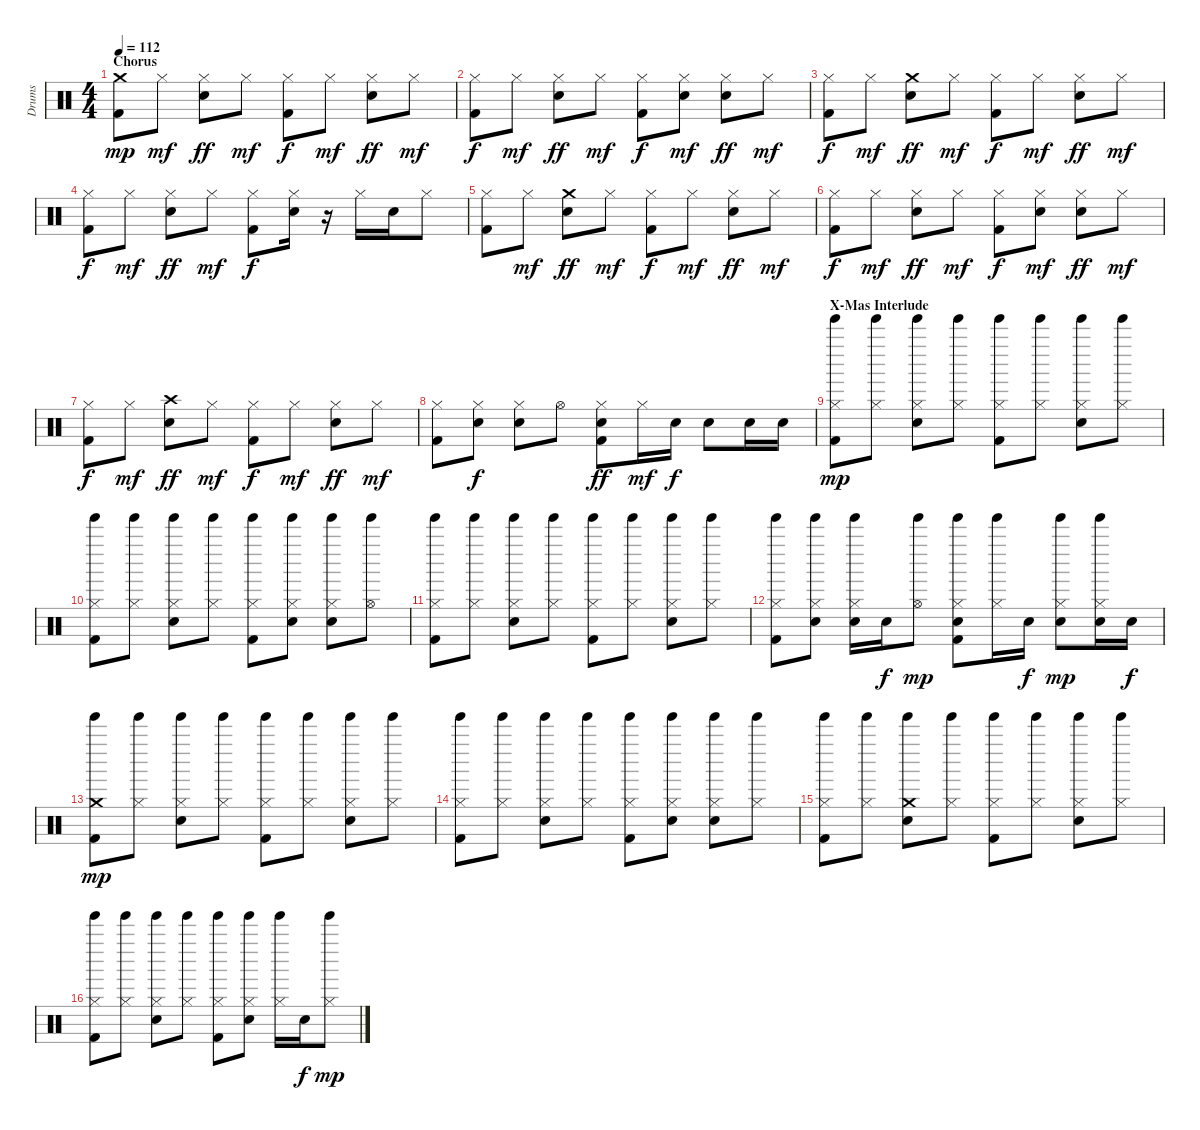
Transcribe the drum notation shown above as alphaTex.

\track ("Drums" "Drums") {instrument percussion}
\staff {score}
\articulation defaults
\ts (4 4)
\section ("" "Chorus")
\tempo 112
\clef neutral
\ks c
("Crash medium (hit)" "Kick (hit) 2").8{dy mp} "Hi-Hat (closed)".8{dy mf} ("Hi-Hat (closed)" "Snare (hit) 2").8{dy ff} "Hi-Hat (closed)".8{dy mf} ("Hi-Hat (closed)" "Kick (hit) 2").8{dy f} "Hi-Hat (closed)".8{dy mf} ("Hi-Hat (closed)" "Snare (hit) 2").8{dy ff} "Hi-Hat (closed)".8{dy mf} |
("Hi-Hat (closed)" "Kick (hit) 2").8{dy f} "Hi-Hat (closed)".8{dy mf} ("Hi-Hat (closed)" "Snare (hit) 2").8{dy ff} "Hi-Hat (closed)".8{dy mf} ("Hi-Hat (closed)" "Kick (hit) 2").8{dy f} ("Hi-Hat (closed)" "Snare (hit) 2").8{dy mf} ("Hi-Hat (closed)" "Snare (hit) 2").8{dy ff} "Hi-Hat (closed)".8{dy mf} |
("Hi-Hat (closed)" "Kick (hit) 2").8{dy f} "Hi-Hat (closed)".8{dy mf} ("Crash medium (hit)" "Snare (hit) 2").8{dy ff} "Hi-Hat (closed)".8{dy mf} ("Hi-Hat (closed)" "Kick (hit) 2").8{dy f} "Hi-Hat (closed)".8{dy mf} ("Hi-Hat (closed)" "Snare (hit) 2").8{dy ff} "Hi-Hat (closed)".8{dy mf} |
("Hi-Hat (closed)" "Kick (hit) 2").8{dy f} "Hi-Hat (closed)".8{dy mf} ("Hi-Hat (closed)" "Snare (hit) 2").8{dy ff} "Hi-Hat (closed)".8{dy mf} ("Hi-Hat (closed)" "Kick (hit) 2").8{dy f} ("Hi-Hat (closed)" "Snare (hit) 2").16 r.16 "Hi-Hat (closed)".16 "Snare (hit) 2".16 "Hi-Hat (closed)".8 |
("Hi-Hat (closed)" "Kick (hit) 2").8 "Hi-Hat (closed)".8{dy mf} ("Crash medium (hit)" "Snare (hit) 2").8{dy ff} "Hi-Hat (closed)".8{dy mf} ("Hi-Hat (closed)" "Kick (hit) 2").8{dy f} "Hi-Hat (closed)".8{dy mf} ("Hi-Hat (closed)" "Snare (hit) 2").8{dy ff} "Hi-Hat (closed)".8{dy mf} |
("Hi-Hat (closed)" "Kick (hit) 2").8{dy f} "Hi-Hat (closed)".8{dy mf} ("Hi-Hat (closed)" "Snare (hit) 2").8{dy ff} "Hi-Hat (closed)".8{dy mf} ("Hi-Hat (closed)" "Kick (hit) 2").8{dy f} ("Hi-Hat (closed)" "Snare (hit) 2").8{dy mf} ("Hi-Hat (closed)" "Snare (hit) 2").8{dy ff} "Hi-Hat (closed)".8{dy mf} |
("Hi-Hat (closed)" "Kick (hit) 2").8{dy f} "Hi-Hat (closed)".8{dy mf} ("Crash high (hit)" "Snare (hit) 2").8{dy ff} "Hi-Hat (closed)".8{dy mf} ("Hi-Hat (closed)" "Kick (hit) 2").8{dy f} "Hi-Hat (closed)".8{dy mf} ("Hi-Hat (closed)" "Snare (hit) 2").8{dy ff} "Hi-Hat (closed)".8{dy mf} |
("Hi-Hat (closed)" "Kick (hit) 2").8 ("Hi-Hat (closed)" "Snare (hit) 2").8{dy f} ("Hi-Hat (closed)" "Snare (hit) 2").8 "Hi-Hat (open)".8 ("Hi-Hat (closed)" "Snare (hit) 2" "Kick (hit) 2").8{dy ff} "Hi-Hat (closed)".16{dy mf} "Snare (hit) 2".16{dy f} "Snare (hit) 2".8 "Snare (hit) 2".16 "Snare (hit) 2".16 |
\section ("" "X-Mas Interlude")
("Hi-Hat (closed)" "Tinkle Bell (hit)" "Kick (hit) 2").8{dy mp} ("Hi-Hat (closed)" "Tinkle Bell (hit)").8 ("Hi-Hat (closed)" "Tinkle Bell (hit)" "Snare (hit) 2").8 ("Hi-Hat (closed)" "Tinkle Bell (hit)").8 ("Hi-Hat (closed)" "Tinkle Bell (hit)" "Kick (hit) 2").8 ("Hi-Hat (closed)" "Tinkle Bell (hit)").8 ("Hi-Hat (closed)" "Tinkle Bell (hit)" "Snare (hit) 2").8 ("Hi-Hat (closed)" "Tinkle Bell (hit)").8 |
("Hi-Hat (closed)" "Tinkle Bell (hit)" "Kick (hit) 2").8 ("Hi-Hat (closed)" "Tinkle Bell (hit)").8 ("Hi-Hat (closed)" "Tinkle Bell (hit)" "Snare (hit) 2").8 ("Hi-Hat (closed)" "Tinkle Bell (hit)").8 ("Hi-Hat (closed)" "Tinkle Bell (hit)" "Kick (hit) 2").8 ("Hi-Hat (closed)" "Tinkle Bell (hit)" "Snare (hit) 2").8 ("Hi-Hat (closed)" "Tinkle Bell (hit)" "Snare (hit) 2").8 ("Hi-Hat (open)" "Tinkle Bell (hit)").8 |
("Hi-Hat (closed)" "Tinkle Bell (hit)" "Kick (hit) 2").8 ("Hi-Hat (closed)" "Tinkle Bell (hit)").8 ("Hi-Hat (closed)" "Tinkle Bell (hit)" "Snare (hit) 2").8 ("Hi-Hat (closed)" "Tinkle Bell (hit)").8 ("Hi-Hat (closed)" "Tinkle Bell (hit)" "Kick (hit) 2").8 ("Hi-Hat (closed)" "Tinkle Bell (hit)").8 ("Hi-Hat (closed)" "Tinkle Bell (hit)" "Snare (hit) 2").8 ("Hi-Hat (closed)" "Tinkle Bell (hit)").8 |
("Hi-Hat (closed)" "Tinkle Bell (hit)" "Kick (hit) 2").8 ("Hi-Hat (closed)" "Tinkle Bell (hit)" "Snare (hit) 2").8 ("Hi-Hat (closed)" "Tinkle Bell (hit)" "Snare (hit) 2").16 "Snare (hit) 2".16{dy f} ("Hi-Hat (open)" "Tinkle Bell (hit)").8{dy mp} ("Hi-Hat (closed)" "Tinkle Bell (hit)" "Snare (hit) 2" "Kick (hit) 2").8 ("Hi-Hat (closed)" "Tinkle Bell (hit)").16 "Snare (hit) 2".16{dy f} ("Hi-Hat (closed)" "Tinkle Bell (hit)" "Snare (hit) 2").8{dy mp} ("Hi-Hat (closed)" "Tinkle Bell (hit)" "Snare (hit) 2").16 "Snare (hit) 2".16{dy f} |
("Crash medium (hit)" "Tinkle Bell (hit)" "Kick (hit) 2").8{dy mp} ("Hi-Hat (closed)" "Tinkle Bell (hit)").8 ("Hi-Hat (closed)" "Tinkle Bell (hit)" "Snare (hit) 2").8 ("Hi-Hat (closed)" "Tinkle Bell (hit)").8 ("Hi-Hat (closed)" "Tinkle Bell (hit)" "Kick (hit) 2").8 ("Hi-Hat (closed)" "Tinkle Bell (hit)").8 ("Hi-Hat (closed)" "Tinkle Bell (hit)" "Snare (hit) 2").8 ("Hi-Hat (closed)" "Tinkle Bell (hit)").8 |
("Hi-Hat (closed)" "Tinkle Bell (hit)" "Kick (hit) 2").8 ("Hi-Hat (closed)" "Tinkle Bell (hit)").8 ("Hi-Hat (closed)" "Tinkle Bell (hit)" "Snare (hit) 2").8 ("Hi-Hat (closed)" "Tinkle Bell (hit)").8 ("Hi-Hat (closed)" "Tinkle Bell (hit)" "Kick (hit) 2").8 ("Hi-Hat (closed)" "Tinkle Bell (hit)" "Snare (hit) 2").8 ("Hi-Hat (closed)" "Tinkle Bell (hit)" "Snare (hit) 2").8 ("Hi-Hat (closed)" "Tinkle Bell (hit)").8 |
("Hi-Hat (closed)" "Tinkle Bell (hit)" "Kick (hit) 2").8 ("Hi-Hat (closed)" "Tinkle Bell (hit)").8 ("Crash medium (hit)" "Tinkle Bell (hit)" "Snare (hit) 2").8 ("Hi-Hat (closed)" "Tinkle Bell (hit)").8 ("Hi-Hat (closed)" "Tinkle Bell (hit)" "Kick (hit) 2").8 ("Hi-Hat (closed)" "Tinkle Bell (hit)").8 ("Hi-Hat (closed)" "Tinkle Bell (hit)" "Snare (hit) 2").8 ("Hi-Hat (closed)" "Tinkle Bell (hit)").8 |
("Hi-Hat (closed)" "Tinkle Bell (hit)" "Kick (hit) 2").8 ("Hi-Hat (closed)" "Tinkle Bell (hit)").8 ("Hi-Hat (closed)" "Tinkle Bell (hit)" "Snare (hit) 2").8 ("Hi-Hat (closed)" "Tinkle Bell (hit)").8 ("Hi-Hat (closed)" "Tinkle Bell (hit)" "Kick (hit) 2").8 ("Hi-Hat (closed)" "Tinkle Bell (hit)" "Snare (hit) 2").8 ("Hi-Hat (closed)" "Tinkle Bell (hit)").16 "Snare (hit) 2".16{dy f} ("Hi-Hat (closed)" "Tinkle Bell (hit)").8{dy mp}
